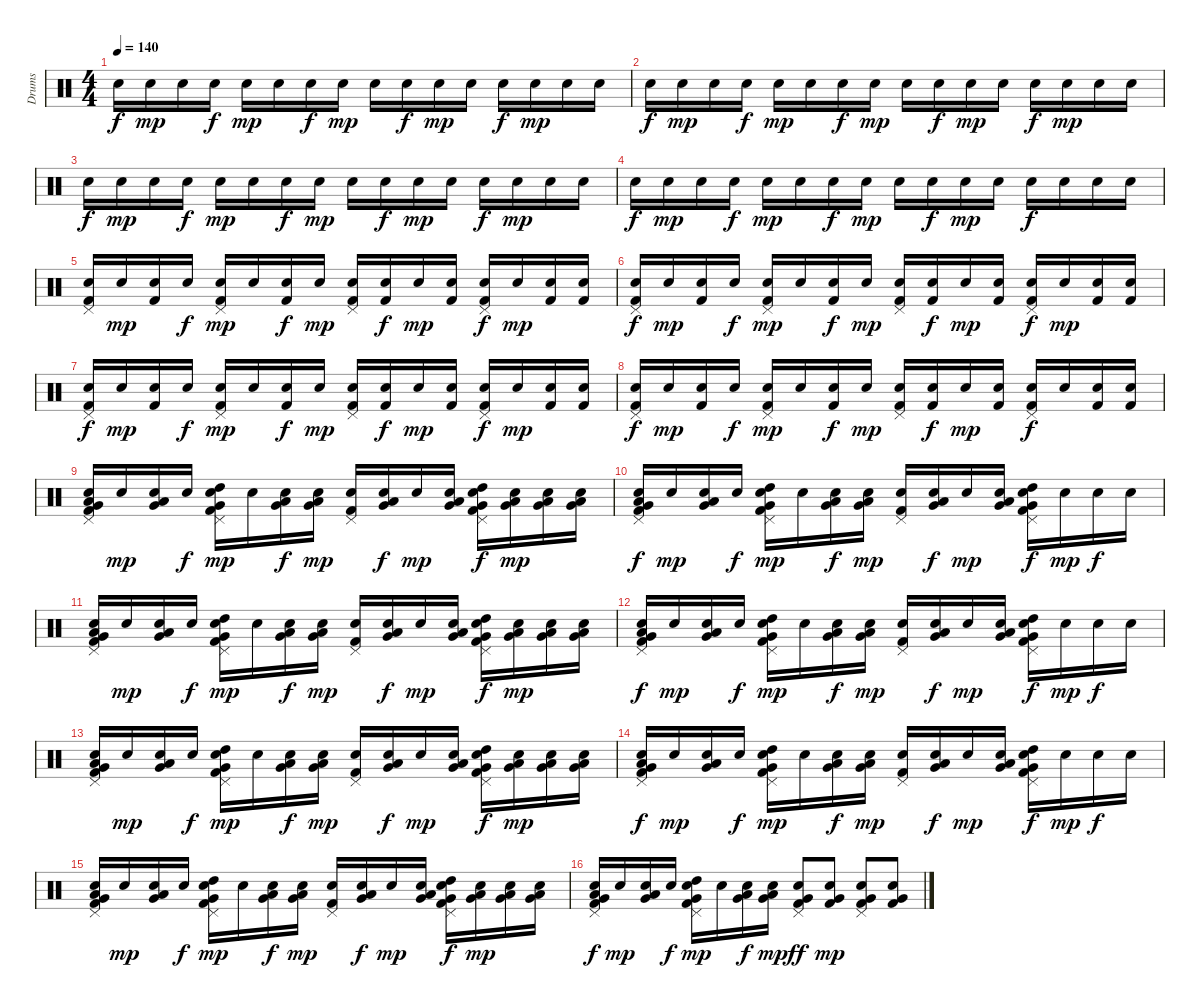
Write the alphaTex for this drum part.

\track ("Drums" "Drums") {instrument percussion}
\staff {score}
\articulation defaults
\ts (4 4)
\tempo 140
\clef neutral
\ks c "Snare (hit) 2".16{dy f} "Snare (hit) 2".16{dy mp} "Snare (hit) 2".16 "Snare (hit) 2".16{dy f} "Snare (hit) 2".16{dy mp} "Snare (hit) 2".16 "Snare (hit) 2".16{dy f} "Snare (hit) 2".16{dy mp} "Snare (hit) 2".16 "Snare (hit) 2".16{dy f} "Snare (hit) 2".16{dy mp} "Snare (hit) 2".16 "Snare (hit) 2".16{dy f} "Snare (hit) 2".16{dy mp} "Snare (hit) 2".16 "Snare (hit) 2".16
|
"Snare (hit) 2".16{dy f} "Snare (hit) 2".16{dy mp} "Snare (hit) 2".16 "Snare (hit) 2".16{dy f} "Snare (hit) 2".16{dy mp} "Snare (hit) 2".16 "Snare (hit) 2".16{dy f} "Snare (hit) 2".16{dy mp} "Snare (hit) 2".16 "Snare (hit) 2".16{dy f} "Snare (hit) 2".16{dy mp} "Snare (hit) 2".16 "Snare (hit) 2".16{dy f} "Snare (hit) 2".16{dy mp} "Snare (hit) 2".16 "Snare (hit) 2".16 |
"Snare (hit) 2".16{dy f} "Snare (hit) 2".16{dy mp} "Snare (hit) 2".16 "Snare (hit) 2".16{dy f} "Snare (hit) 2".16{dy mp} "Snare (hit) 2".16 "Snare (hit) 2".16{dy f} "Snare (hit) 2".16{dy mp} "Snare (hit) 2".16 "Snare (hit) 2".16{dy f} "Snare (hit) 2".16{dy mp} "Snare (hit) 2".16 "Snare (hit) 2".16{dy f} "Snare (hit) 2".16{dy mp} "Snare (hit) 2".16 "Snare (hit) 2".16 |
"Snare (hit) 2".16{dy f} "Snare (hit) 2".16{dy mp} "Snare (hit) 2".16 "Snare (hit) 2".16{dy f} "Snare (hit) 2".16{dy mp} "Snare (hit) 2".16 "Snare (hit) 2".16{dy f} "Snare (hit) 2".16{dy mp} "Snare (hit) 2".16 "Snare (hit) 2".16{dy f} "Snare (hit) 2".16{dy mp} "Snare (hit) 2".16 "Snare (hit) 2".16{dy f} "Snare (hit) 2".16 "Snare (hit) 2".16 "Snare (hit) 2".16 |
("Pedal Hi-Hat (hit)" "Snare (hit) 2" "Kick (hit) 2").16 "Snare (hit) 2".16{dy mp} ("Snare (hit) 2" "Kick (hit) 2").16 "Snare (hit) 2".16{dy f} ("Pedal Hi-Hat (hit)" "Snare (hit) 2" "Kick (hit) 2").16{dy mp} "Snare (hit) 2".16 ("Snare (hit) 2" "Kick (hit) 2").16{dy f} "Snare (hit) 2".16{dy mp} ("Pedal Hi-Hat (hit)" "Snare (hit) 2" "Kick (hit) 2").16 ("Snare (hit) 2" "Kick (hit) 2").16{dy f} "Snare (hit) 2".16{dy mp} ("Snare (hit) 2" "Kick (hit) 2").16 ("Pedal Hi-Hat (hit)" "Snare (hit) 2" "Kick (hit) 2").16{dy f} "Snare (hit) 2".16{dy mp} ("Snare (hit) 2" "Kick (hit) 2").16 ("Snare (hit) 2" "Kick (hit) 2").16 |
("Pedal Hi-Hat (hit)" "Snare (hit) 2" "Kick (hit) 2").16{dy f} "Snare (hit) 2".16{dy mp} ("Snare (hit) 2" "Kick (hit) 2").16 "Snare (hit) 2".16{dy f} ("Pedal Hi-Hat (hit)" "Snare (hit) 2" "Kick (hit) 2").16{dy mp} "Snare (hit) 2".16 ("Snare (hit) 2" "Kick (hit) 2").16{dy f} "Snare (hit) 2".16{dy mp} ("Pedal Hi-Hat (hit)" "Snare (hit) 2" "Kick (hit) 2").16 ("Snare (hit) 2" "Kick (hit) 2").16{dy f} "Snare (hit) 2".16{dy mp} ("Snare (hit) 2" "Kick (hit) 2").16 ("Pedal Hi-Hat (hit)" "Snare (hit) 2" "Kick (hit) 2").16{dy f} "Snare (hit) 2".16{dy mp} ("Snare (hit) 2" "Kick (hit) 2").16 ("Snare (hit) 2" "Kick (hit) 2").16 |
("Pedal Hi-Hat (hit)" "Snare (hit) 2" "Kick (hit) 2").16{dy f} "Snare (hit) 2".16{dy mp} ("Snare (hit) 2" "Kick (hit) 2").16 "Snare (hit) 2".16{dy f} ("Pedal Hi-Hat (hit)" "Snare (hit) 2" "Kick (hit) 2").16{dy mp} "Snare (hit) 2".16 ("Snare (hit) 2" "Kick (hit) 2").16{dy f} "Snare (hit) 2".16{dy mp} ("Pedal Hi-Hat (hit)" "Snare (hit) 2" "Kick (hit) 2").16 ("Snare (hit) 2" "Kick (hit) 2").16{dy f} "Snare (hit) 2".16{dy mp} ("Snare (hit) 2" "Kick (hit) 2").16 ("Pedal Hi-Hat (hit)" "Snare (hit) 2" "Kick (hit) 2").16{dy f} "Snare (hit) 2".16{dy mp} ("Snare (hit) 2" "Kick (hit) 2").16 ("Snare (hit) 2" "Kick (hit) 2").16 |
("Pedal Hi-Hat (hit)" "Snare (hit) 2" "Kick (hit) 2").16{dy f} "Snare (hit) 2".16{dy mp} ("Snare (hit) 2" "Kick (hit) 2").16 "Snare (hit) 2".16{dy f} ("Pedal Hi-Hat (hit)" "Snare (hit) 2" "Kick (hit) 2").16{dy mp} "Snare (hit) 2".16 ("Snare (hit) 2" "Kick (hit) 2").16{dy f} "Snare (hit) 2".16{dy mp} ("Pedal Hi-Hat (hit)" "Snare (hit) 2" "Kick (hit) 2").16 ("Snare (hit) 2" "Kick (hit) 2").16{dy f} "Snare (hit) 2".16{dy mp} ("Snare (hit) 2" "Kick (hit) 2").16 ("Pedal Hi-Hat (hit)" "Electric Snare (hit)" "Kick (hit) 2").16{dy f} "Electric Snare (hit)".16 ("Electric Snare (hit)" "Kick (hit) 2").16 ("Electric Snare (hit)" "Kick (hit) 2").16 |
("Pedal Hi-Hat (hit)" "Snare (hit) 2" "Low Tom (hit)" "Very Low Tom (hit)" "Kick (hit) 2").16 "Snare (hit) 2".16{dy mp} ("Snare (hit) 2" "Low Tom (hit)" "Very Low Tom (hit)").16 "Snare (hit) 2".16{dy f} ("Pedal Hi-Hat (hit)" "Snare (hit) 2" "High Tom (hit)" "Very Low Tom (hit)" "Kick (hit) 2").16{dy mp} "Snare (hit) 2".16 ("Snare (hit) 2" "Low Tom (hit)" "Very Low Tom (hit)").16{dy f} ("Snare (hit) 2" "Low Tom (hit)" "Very Low Tom (hit)").16{dy mp} ("Pedal Hi-Hat (hit)" "Snare (hit) 2" "Kick (hit) 2").16 ("Snare (hit) 2" "Low Tom (hit)" "Very Low Tom (hit)").16{dy f} "Snare (hit) 2".16{dy mp} ("Snare (hit) 2" "Low Tom (hit)" "Very Low Tom (hit)").16 ("Pedal Hi-Hat (hit)" "Snare (hit) 2" "High Tom (hit)" "Very Low Tom (hit)" "Kick (hit) 2").16{dy f} ("Snare (hit) 2" "Low Tom (hit)" "Very Low Tom (hit)").16{dy mp} ("Snare (hit) 2" "Low Tom (hit)" "Very Low Tom (hit)").16 ("Snare (hit) 2" "Low Tom (hit)" "Very Low Tom (hit)").16 |
("Pedal Hi-Hat (hit)" "Snare (hit) 2" "Low Tom (hit)" "Very Low Tom (hit)" "Kick (hit) 2").16{dy f} "Snare (hit) 2".16{dy mp} ("Snare (hit) 2" "Low Tom (hit)" "Very Low Tom (hit)").16 "Snare (hit) 2".16{dy f} ("Pedal Hi-Hat (hit)" "Snare (hit) 2" "High Tom (hit)" "Very Low Tom (hit)" "Kick (hit) 2").16{dy mp} "Snare (hit) 2".16 ("Snare (hit) 2" "Low Tom (hit)" "Very Low Tom (hit)").16{dy f} ("Snare (hit) 2" "Low Tom (hit)" "Very Low Tom (hit)").16{dy mp} ("Pedal Hi-Hat (hit)" "Snare (hit) 2" "Kick (hit) 2").16 ("Snare (hit) 2" "Low Tom (hit)" "Very Low Tom (hit)").16{dy f} "Snare (hit) 2".16{dy mp} ("Snare (hit) 2" "Low Tom (hit)" "Very Low Tom (hit)").16 ("Pedal Hi-Hat (hit)" "Snare (hit) 2" "High Tom (hit)" "Very Low Tom (hit)" "Kick (hit) 2").16{dy f} "Snare (hit) 2".16{dy mp} "Snare (hit) 2".16{dy f} "Snare (hit) 2".16 |
("Pedal Hi-Hat (hit)" "Snare (hit) 2" "Low Tom (hit)" "Very Low Tom (hit)" "Kick (hit) 2").16 "Snare (hit) 2".16{dy mp} ("Snare (hit) 2" "Low Tom (hit)" "Very Low Tom (hit)").16 "Snare (hit) 2".16{dy f} ("Pedal Hi-Hat (hit)" "Snare (hit) 2" "High Tom (hit)" "Very Low Tom (hit)" "Kick (hit) 2").16{dy mp} "Snare (hit) 2".16 ("Snare (hit) 2" "Low Tom (hit)" "Very Low Tom (hit)").16{dy f} ("Snare (hit) 2" "Low Tom (hit)" "Very Low Tom (hit)").16{dy mp} ("Pedal Hi-Hat (hit)" "Snare (hit) 2" "Kick (hit) 2").16 ("Snare (hit) 2" "Low Tom (hit)" "Very Low Tom (hit)").16{dy f} "Snare (hit) 2".16{dy mp} ("Snare (hit) 2" "Low Tom (hit)" "Very Low Tom (hit)").16 ("Pedal Hi-Hat (hit)" "Snare (hit) 2" "High Tom (hit)" "Very Low Tom (hit)" "Kick (hit) 2").16{dy f} ("Snare (hit) 2" "Low Tom (hit)" "Very Low Tom (hit)").16{dy mp} ("Snare (hit) 2" "Low Tom (hit)" "Very Low Tom (hit)").16 ("Snare (hit) 2" "Low Tom (hit)" "Very Low Tom (hit)").16 |
("Pedal Hi-Hat (hit)" "Snare (hit) 2" "Low Tom (hit)" "Very Low Tom (hit)" "Kick (hit) 2").16{dy f} "Snare (hit) 2".16{dy mp} ("Snare (hit) 2" "Low Tom (hit)" "Very Low Tom (hit)").16 "Snare (hit) 2".16{dy f} ("Pedal Hi-Hat (hit)" "Snare (hit) 2" "High Tom (hit)" "Very Low Tom (hit)" "Kick (hit) 2").16{dy mp} "Snare (hit) 2".16 ("Snare (hit) 2" "Low Tom (hit)" "Very Low Tom (hit)").16{dy f} ("Snare (hit) 2" "Low Tom (hit)" "Very Low Tom (hit)").16{dy mp} ("Pedal Hi-Hat (hit)" "Snare (hit) 2" "Kick (hit) 2").16 ("Snare (hit) 2" "Low Tom (hit)" "Very Low Tom (hit)").16{dy f} "Snare (hit) 2".16{dy mp} ("Snare (hit) 2" "Low Tom (hit)" "Very Low Tom (hit)").16 ("Pedal Hi-Hat (hit)" "Snare (hit) 2" "High Tom (hit)" "Very Low Tom (hit)" "Kick (hit) 2").16{dy f} "Snare (hit) 2".16{dy mp} "Snare (hit) 2".16{dy f} "Snare (hit) 2".16 |
("Pedal Hi-Hat (hit)" "Snare (hit) 2" "Low Tom (hit)" "Very Low Tom (hit)" "Kick (hit) 2").16 "Snare (hit) 2".16{dy mp} ("Snare (hit) 2" "Low Tom (hit)" "Very Low Tom (hit)").16 "Snare (hit) 2".16{dy f} ("Pedal Hi-Hat (hit)" "Snare (hit) 2" "High Tom (hit)" "Very Low Tom (hit)" "Kick (hit) 2").16{dy mp} "Snare (hit) 2".16 ("Snare (hit) 2" "Low Tom (hit)" "Very Low Tom (hit)").16{dy f} ("Snare (hit) 2" "Low Tom (hit)" "Very Low Tom (hit)").16{dy mp} ("Pedal Hi-Hat (hit)" "Snare (hit) 2" "Kick (hit) 2").16 ("Snare (hit) 2" "Low Tom (hit)" "Very Low Tom (hit)").16{dy f} "Snare (hit) 2".16{dy mp} ("Snare (hit) 2" "Low Tom (hit)" "Very Low Tom (hit)").16 ("Pedal Hi-Hat (hit)" "Snare (hit) 2" "High Tom (hit)" "Very Low Tom (hit)" "Kick (hit) 2").16{dy f} ("Snare (hit) 2" "Low Tom (hit)" "Very Low Tom (hit)").16{dy mp} ("Snare (hit) 2" "Low Tom (hit)" "Very Low Tom (hit)").16 ("Snare (hit) 2" "Low Tom (hit)" "Very Low Tom (hit)").16 |
("Pedal Hi-Hat (hit)" "Snare (hit) 2" "Low Tom (hit)" "Very Low Tom (hit)" "Kick (hit) 2").16{dy f} "Snare (hit) 2".16{dy mp} ("Snare (hit) 2" "Low Tom (hit)" "Very Low Tom (hit)").16 "Snare (hit) 2".16{dy f} ("Pedal Hi-Hat (hit)" "Snare (hit) 2" "High Tom (hit)" "Very Low Tom (hit)" "Kick (hit) 2").16{dy mp} "Snare (hit) 2".16 ("Snare (hit) 2" "Low Tom (hit)" "Very Low Tom (hit)").16{dy f} ("Snare (hit) 2" "Low Tom (hit)" "Very Low Tom (hit)").16{dy mp} ("Pedal Hi-Hat (hit)" "Snare (hit) 2" "Kick (hit) 2").16 ("Snare (hit) 2" "Low Tom (hit)" "Very Low Tom (hit)").16{dy f} "Snare (hit) 2".16{dy mp} ("Snare (hit) 2" "Low Tom (hit)" "Very Low Tom (hit)").16 ("Pedal Hi-Hat (hit)" "Snare (hit) 2" "High Tom (hit)" "Very Low Tom (hit)" "Kick (hit) 2").16{dy f} "Snare (hit) 2".16{dy mp} "Snare (hit) 2".16{dy f} "Snare (hit) 2".16 |
("Pedal Hi-Hat (hit)" "Snare (hit) 2" "Low Tom (hit)" "Very Low Tom (hit)" "Kick (hit) 2").16 "Snare (hit) 2".16{dy mp} ("Snare (hit) 2" "Low Tom (hit)" "Very Low Tom (hit)").16 "Snare (hit) 2".16{dy f} ("Pedal Hi-Hat (hit)" "Snare (hit) 2" "High Tom (hit)" "Very Low Tom (hit)" "Kick (hit) 2").16{dy mp} "Snare (hit) 2".16 ("Snare (hit) 2" "Low Tom (hit)" "Very Low Tom (hit)").16{dy f} ("Snare (hit) 2" "Low Tom (hit)" "Very Low Tom (hit)").16{dy mp} ("Pedal Hi-Hat (hit)" "Snare (hit) 2" "Kick (hit) 2").16 ("Snare (hit) 2" "Low Tom (hit)" "Very Low Tom (hit)").16{dy f} "Snare (hit) 2".16{dy mp} ("Snare (hit) 2" "Low Tom (hit)" "Very Low Tom (hit)").16 ("Pedal Hi-Hat (hit)" "Snare (hit) 2" "High Tom (hit)" "Very Low Tom (hit)" "Kick (hit) 2").16{dy f} ("Snare (hit) 2" "Low Tom (hit)" "Very Low Tom (hit)").16{dy mp} ("Snare (hit) 2" "Low Tom (hit)" "Very Low Tom (hit)").16 ("Snare (hit) 2" "Low Tom (hit)" "Very Low Tom (hit)").16 |
("Pedal Hi-Hat (hit)" "Snare (hit) 2" "Low Tom (hit)" "Very Low Tom (hit)" "Kick (hit) 2").16{dy f} "Snare (hit) 2".16{dy mp} ("Snare (hit) 2" "Low Tom (hit)" "Very Low Tom (hit)").16 "Snare (hit) 2".16{dy f} ("Pedal Hi-Hat (hit)" "Snare (hit) 2" "High Tom (hit)" "Very Low Tom (hit)" "Kick (hit) 2").16{dy mp} "Snare (hit) 2".16 ("Snare (hit) 2" "Low Tom (hit)" "Very Low Tom (hit)").16{dy f} ("Snare (hit) 2" "Low Tom (hit)" "Very Low Tom (hit)").16{dy mp} ("Pedal Hi-Hat (hit)" "Snare (hit) 2" "Very Low Tom (hit)" "Kick (hit) 2").8{dy ff} ("Snare (hit) 2" "Very Low Tom (hit)" "Kick (hit) 2").8{dy mp} ("Pedal Hi-Hat (hit)" "Snare (hit) 2" "Very Low Tom (hit)" "Kick (hit) 2").8 ("Snare (hit) 2" "Very Low Tom (hit)" "Kick (hit) 2").8
